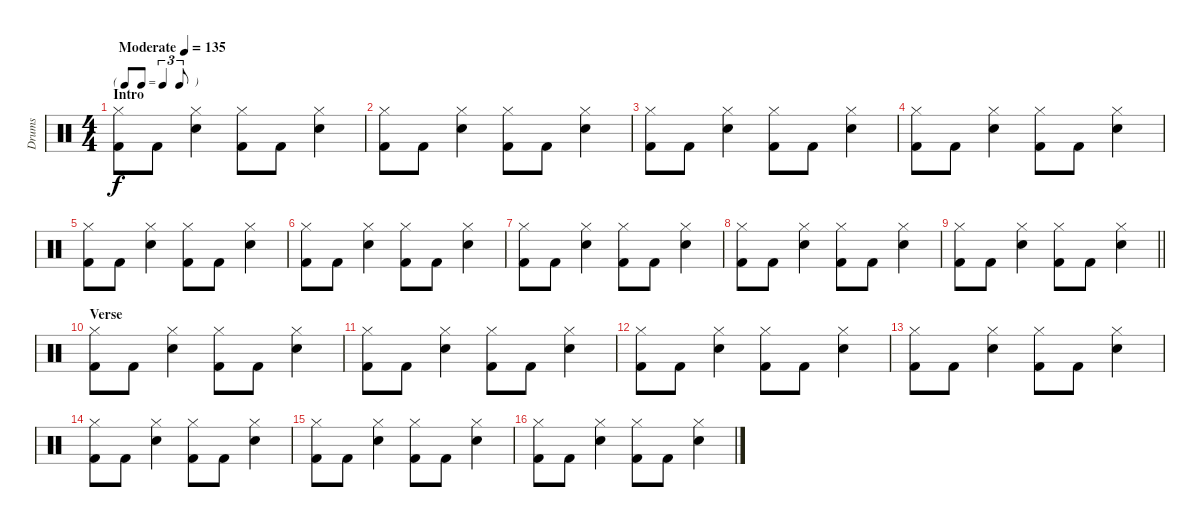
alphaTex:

\track ("Drums" "Drums") {instrument percussion}
\staff {score}
\articulation defaults
\ts (4 4)
\tf triplet8th
\section ("" "Intro")
\tempo (135 "Moderate")
\clef neutral
\ks c
("Hi-Hat (closed)" "Kick (hit) 2").8{dy f} "Kick (hit) 2".8 ("Hi-Hat (closed)" "Snare (hit) 2").4 ("Hi-Hat (closed)" "Kick (hit) 2").8 "Kick (hit) 2".8 ("Hi-Hat (closed)" "Snare (hit) 2").4 |
("Hi-Hat (closed)" "Kick (hit) 2").8 "Kick (hit) 2".8 ("Hi-Hat (closed)" "Snare (hit) 2").4 ("Hi-Hat (closed)" "Kick (hit) 2").8 "Kick (hit) 2".8 ("Hi-Hat (closed)" "Snare (hit) 2").4 |
("Hi-Hat (closed)" "Kick (hit) 2").8 "Kick (hit) 2".8 ("Hi-Hat (closed)" "Snare (hit) 2").4 ("Hi-Hat (closed)" "Kick (hit) 2").8 "Kick (hit) 2".8 ("Hi-Hat (closed)" "Snare (hit) 2").4 |
("Hi-Hat (closed)" "Kick (hit) 2").8 "Kick (hit) 2".8 ("Hi-Hat (closed)" "Snare (hit) 2").4 ("Hi-Hat (closed)" "Kick (hit) 2").8 "Kick (hit) 2".8 ("Hi-Hat (closed)" "Snare (hit) 2").4 |
("Hi-Hat (closed)" "Kick (hit) 2").8 "Kick (hit) 2".8 ("Hi-Hat (closed)" "Snare (hit) 2").4 ("Hi-Hat (closed)" "Kick (hit) 2").8 "Kick (hit) 2".8 ("Hi-Hat (closed)" "Snare (hit) 2").4 |
("Hi-Hat (closed)" "Kick (hit) 2").8 "Kick (hit) 2".8 ("Hi-Hat (closed)" "Snare (hit) 2").4 ("Hi-Hat (closed)" "Kick (hit) 2").8 "Kick (hit) 2".8 ("Hi-Hat (closed)" "Snare (hit) 2").4 |
("Hi-Hat (closed)" "Kick (hit) 2").8 "Kick (hit) 2".8 ("Hi-Hat (closed)" "Snare (hit) 2").4 ("Hi-Hat (closed)" "Kick (hit) 2").8 "Kick (hit) 2".8 ("Hi-Hat (closed)" "Snare (hit) 2").4 |
("Hi-Hat (closed)" "Kick (hit) 2").8 "Kick (hit) 2".8 ("Hi-Hat (closed)" "Snare (hit) 2").4 ("Hi-Hat (closed)" "Kick (hit) 2").8 "Kick (hit) 2".8 ("Hi-Hat (closed)" "Snare (hit) 2").4 |
\barLineRight lightlight
("Hi-Hat (closed)" "Kick (hit) 2").8 "Kick (hit) 2".8 ("Hi-Hat (closed)" "Snare (hit) 2").4 ("Hi-Hat (closed)" "Kick (hit) 2").8 "Kick (hit) 2".8 ("Hi-Hat (closed)" "Snare (hit) 2").4 |
\section ("" "Verse")
("Hi-Hat (closed)" "Kick (hit) 2").8 "Kick (hit) 2".8 ("Hi-Hat (closed)" "Snare (hit) 2").4 ("Hi-Hat (closed)" "Kick (hit) 2").8 "Kick (hit) 2".8 ("Hi-Hat (closed)" "Snare (hit) 2").4 |
("Hi-Hat (closed)" "Kick (hit) 2").8 "Kick (hit) 2".8 ("Hi-Hat (closed)" "Snare (hit) 2").4 ("Hi-Hat (closed)" "Kick (hit) 2").8 "Kick (hit) 2".8 ("Hi-Hat (closed)" "Snare (hit) 2").4 |
("Hi-Hat (closed)" "Kick (hit) 2").8 "Kick (hit) 2".8 ("Hi-Hat (closed)" "Snare (hit) 2").4 ("Hi-Hat (closed)" "Kick (hit) 2").8 "Kick (hit) 2".8 ("Hi-Hat (closed)" "Snare (hit) 2").4 |
("Hi-Hat (closed)" "Kick (hit) 2").8 "Kick (hit) 2".8 ("Hi-Hat (closed)" "Snare (hit) 2").4 ("Hi-Hat (closed)" "Kick (hit) 2").8 "Kick (hit) 2".8 ("Hi-Hat (closed)" "Snare (hit) 2").4 |
("Hi-Hat (closed)" "Kick (hit) 2").8 "Kick (hit) 2".8 ("Hi-Hat (closed)" "Snare (hit) 2").4 ("Hi-Hat (closed)" "Kick (hit) 2").8 "Kick (hit) 2".8 ("Hi-Hat (closed)" "Snare (hit) 2").4 |
("Hi-Hat (closed)" "Kick (hit) 2").8 "Kick (hit) 2".8 ("Hi-Hat (closed)" "Snare (hit) 2").4 ("Hi-Hat (closed)" "Kick (hit) 2").8 "Kick (hit) 2".8 ("Hi-Hat (closed)" "Snare (hit) 2").4 |
("Hi-Hat (closed)" "Kick (hit) 2").8 "Kick (hit) 2".8 ("Hi-Hat (closed)" "Snare (hit) 2").4 ("Hi-Hat (closed)" "Kick (hit) 2").8 "Kick (hit) 2".8 ("Hi-Hat (closed)" "Snare (hit) 2").4
